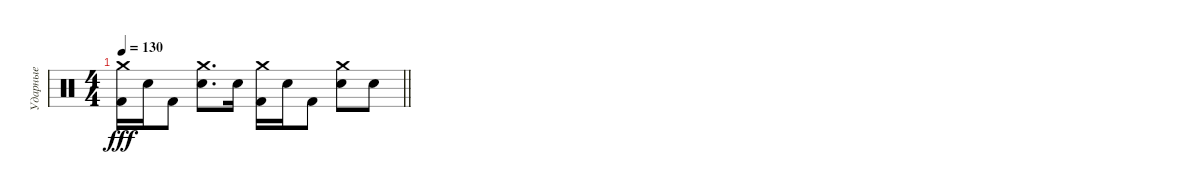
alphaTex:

\track ("Ударные" "Ударные") {instrument percussion}
\staff {score}
\articulation defaults
\ts (4 4)
\tempo 130
\clef neutral
\barLineRight lightlight
\ks c
("Crash medium (hit)" "Kick (hit) 2").16{dy fff} "Electric Snare (hit)".16 "Kick (hit) 2".8 ("Crash medium (hit)" "Electric Snare (hit)").8{d} "Electric Snare (hit)".16 ("Crash medium (hit)" "Kick (hit) 2").16 "Electric Snare (hit)".16 "Kick (hit) 2".8 ("Crash medium (hit)" "Electric Snare (hit)").8 "Electric Snare (hit)".8
